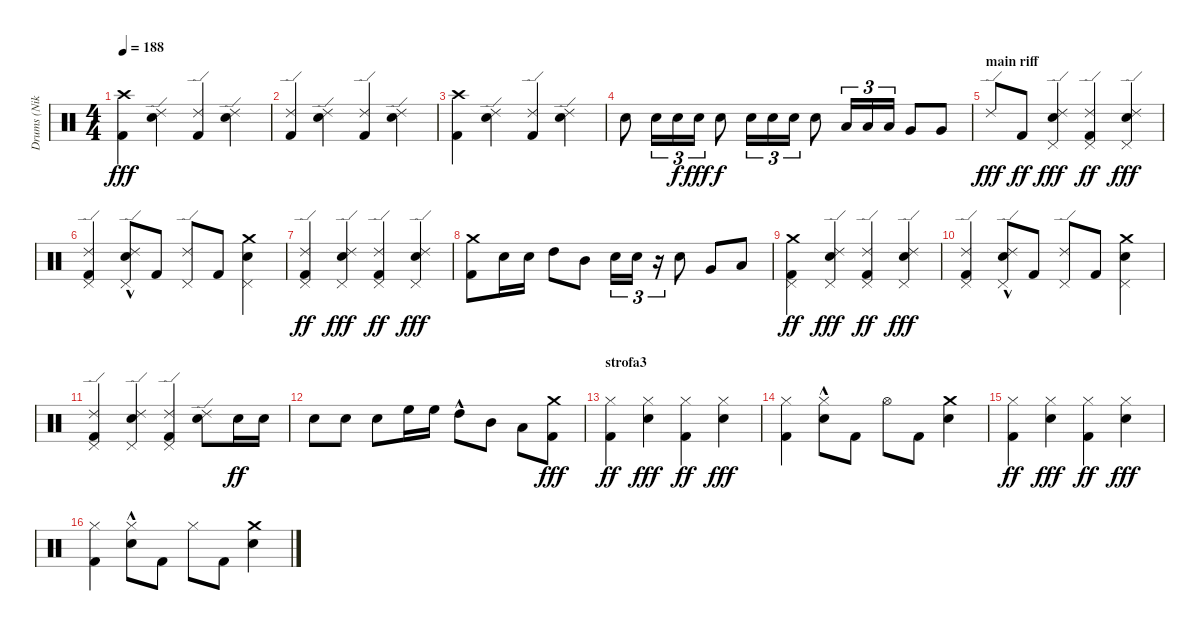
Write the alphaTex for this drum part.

\track ("Drums (Niko)" "Drums (Nik") {instrument percussion}
\staff {score}
\articulation defaults
\ts (4 4)
\tempo 188
\clef neutral
\ks c
("Crash high (hit)" "Kick (hit) 2").4{dy fff} ("Ride (edge) 2" "Electric Snare (hit)").4 ("Ride (edge) 2" "Kick (hit) 2").4 ("Ride (edge) 2" "Electric Snare (hit)").4 |
("Ride (edge) 2" "Kick (hit) 2").4 ("Ride (edge) 2" "Electric Snare (hit)").4 ("Ride (edge) 2" "Kick (hit) 2").4 ("Ride (edge) 2" "Electric Snare (hit)").4 |
("Crash high (hit)" "Kick (hit) 2").4 ("Ride (edge) 2" "Electric Snare (hit)").4 ("Ride (edge) 2" "Kick (hit) 2").4 ("Ride (edge) 2" "Electric Snare (hit)").4 |
"Electric Snare (hit)".8 "Electric Snare (hit)".16{tu (3 2)} "Electric Snare (hit)".16{tu (3 2) dy f} "Electric Snare (hit)".16{tu (3 2) dy fff} "Electric Snare (hit)".8{dy f} "Electric Snare (hit)".16{tu (3 2)} "Electric Snare (hit)".16{tu (3 2)} "Electric Snare (hit)".16{tu (3 2)} "Electric Snare (hit)".8 "Low Tom (hit)".16{tu (3 2)} "Low Tom (hit)".16{tu (3 2)} "Low Tom (hit)".16{tu (3 2)} "Very Low Tom (hit)".8 "Very Low Tom (hit)".8 |
\section ("" "main riff")
"Ride (edge) 2".8{dy fff} "Kick (hit) 2".8{dy ff} ("Ride (edge) 2" "Electric Snare (hit)" "Pedal Hi-Hat (hit)").4{dy fff} ("Ride (edge) 2" "Pedal Hi-Hat (hit)" "Kick (hit) 2").4{dy ff} ("Ride (edge) 2" "Electric Snare (hit)" "Pedal Hi-Hat (hit)").4{dy fff} |
("Ride (edge) 2" "Pedal Hi-Hat (hit)" "Kick (hit) 2").4 ("Ride (edge) 2" "Electric Snare (hit)"{hac} "Pedal Hi-Hat (hit)").8 "Kick (hit) 2".8 ("Ride (edge) 2" "Pedal Hi-Hat (hit)").8 "Kick (hit) 2".8 ("Crash medium (hit)" "Electric Snare (hit)" "Pedal Hi-Hat (hit)").4 |
("Ride (edge) 2" "Pedal Hi-Hat (hit)" "Kick (hit) 2").4{dy ff} ("Ride (edge) 2" "Electric Snare (hit)" "Pedal Hi-Hat (hit)").4{dy fff} ("Ride (edge) 2" "Pedal Hi-Hat (hit)" "Kick (hit) 2").4{dy ff} ("Ride (edge) 2" "Electric Snare (hit)" "Pedal Hi-Hat (hit)").4{dy fff} |
("Crash medium (hit)" "Kick (hit) 2").8 "Electric Snare (hit)".16 "Electric Snare (hit)".16 "High Tom (hit)".8 "Mid Tom (hit)".8 "Electric Snare (hit)".16{tu (3 2)} "Electric Snare (hit)".16{tu (3 2)} r.16{tu (3 2)} "Electric Snare (hit)".8 "Very Low Tom (hit)".8 "Low Floor Tom (hit)".8 |
("Crash medium (hit)" "Pedal Hi-Hat (hit)" "Kick (hit) 2").4{dy ff} ("Ride (edge) 2" "Electric Snare (hit)" "Pedal Hi-Hat (hit)").4{dy fff} ("Ride (edge) 2" "Pedal Hi-Hat (hit)" "Kick (hit) 2").4{dy ff} ("Ride (edge) 2" "Electric Snare (hit)" "Pedal Hi-Hat (hit)").4{dy fff} |
("Ride (edge) 2" "Pedal Hi-Hat (hit)" "Kick (hit) 2").4 ("Ride (edge) 2" "Electric Snare (hit)"{hac} "Pedal Hi-Hat (hit)").8 "Kick (hit) 2".8 ("Ride (edge) 2" "Pedal Hi-Hat (hit)").8 "Kick (hit) 2".8 ("Crash medium (hit)" "Electric Snare (hit)" "Pedal Hi-Hat (hit)").4 |
("Ride (edge) 2" "Pedal Hi-Hat (hit)" "Kick (hit) 2").4 ("Ride (edge) 2" "Electric Snare (hit)" "Pedal Hi-Hat (hit)").4 ("Ride (edge) 2" "Pedal Hi-Hat (hit)" "Kick (hit) 2").4 ("Ride (edge) 2" "Electric Snare (hit)").8 "Electric Snare (hit)".16{dy ff} "Electric Snare (hit)".16 |
"Electric Snare (hit)".8 "Electric Snare (hit)".8 "Electric Snare (hit)".8 "High Floor Tom (hit)".16 "High Floor Tom (hit)".16 "High Tom (hit)"{hac}.8 "Mid Tom (hit)".8 "Low Tom (hit)".8 ("Crash medium (hit)" "Kick (hit) 2").8{dy fff} |
\section ("" "strofa3")
("Hi-Hat (closed)" "Kick (hit) 2").4{dy ff} ("Hi-Hat (closed)" "Electric Snare (hit)").4{dy fff} ("Hi-Hat (closed)" "Kick (hit) 2").4{dy ff} ("Hi-Hat (closed)" "Electric Snare (hit)").4{dy fff} |
("Hi-Hat (closed)" "Kick (hit) 2").4 ("Hi-Hat (closed)" "Electric Snare (hit)"{hac}).8 "Kick (hit) 2".8 "Hi-Hat (open)".8 "Kick (hit) 2".8 ("Crash medium (hit)" "Electric Snare (hit)").4 |
("Hi-Hat (closed)" "Kick (hit) 2").4{dy ff} ("Hi-Hat (closed)" "Electric Snare (hit)").4{dy fff} ("Hi-Hat (closed)" "Kick (hit) 2").4{dy ff} ("Hi-Hat (closed)" "Electric Snare (hit)").4{dy fff} |
("Hi-Hat (closed)" "Kick (hit) 2").4 ("Hi-Hat (closed)" "Electric Snare (hit)"{hac}).8 "Kick (hit) 2".8 "Hi-Hat (closed)".8 "Kick (hit) 2".8 ("Crash medium (hit)" "Electric Snare (hit)").4
